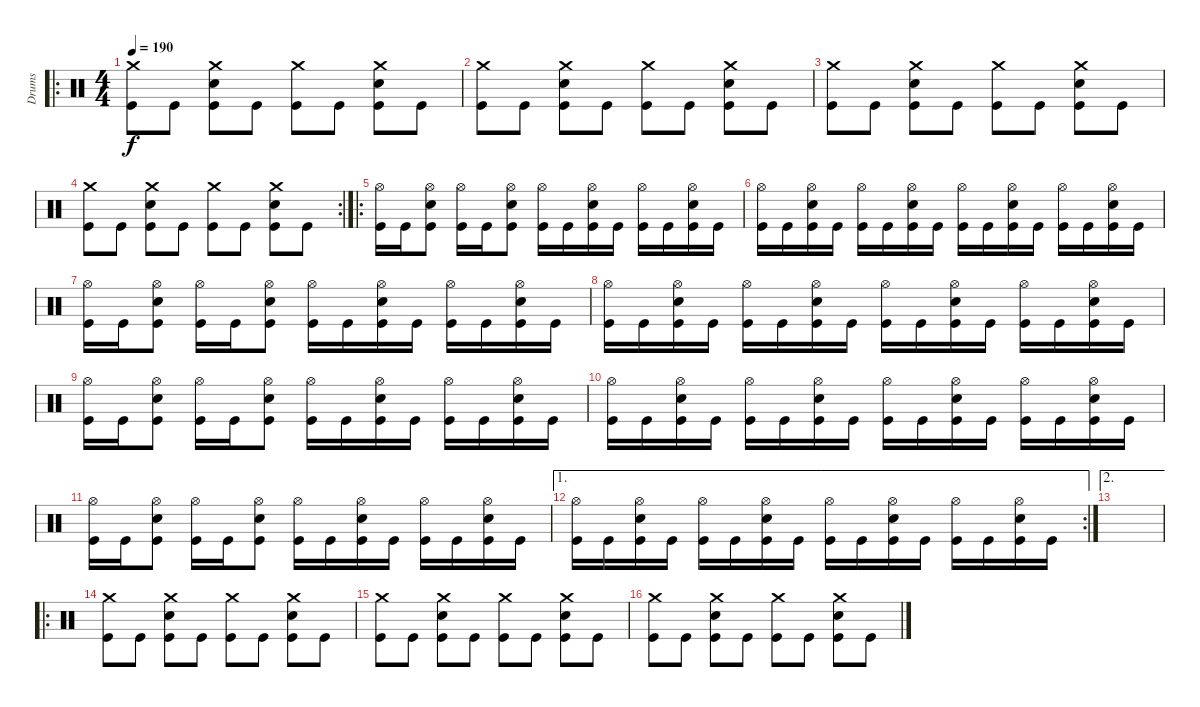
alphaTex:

\track ("Drums" "Drums") {instrument percussion}
\staff {score}
\articulation defaults
\ro
\ts (4 4)
\tempo 190
\clef neutral
\ks c
("Crash medium (hit)" "Kick (hit)").8{dy f} "Kick (hit)".8 ("Crash medium (hit)" "Snare (hit) 2" "Kick (hit)").8 "Kick (hit)".8 ("Crash medium (hit)" "Kick (hit)").8 "Kick (hit)".8 ("Crash medium (hit)" "Snare (hit) 2" "Kick (hit)").8 "Kick (hit)".8 |
("Crash medium (hit)" "Kick (hit)").8 "Kick (hit)".8 ("Crash medium (hit)" "Snare (hit) 2" "Kick (hit)").8 "Kick (hit)".8 ("Crash medium (hit)" "Kick (hit)").8 "Kick (hit)".8 ("Crash medium (hit)" "Snare (hit) 2" "Kick (hit)").8 "Kick (hit)".8 |
("Crash medium (hit)" "Kick (hit)").8 "Kick (hit)".8 ("Crash medium (hit)" "Snare (hit) 2" "Kick (hit)").8 "Kick (hit)".8 ("Crash medium (hit)" "Kick (hit)").8 "Kick (hit)".8 ("Crash medium (hit)" "Snare (hit) 2" "Kick (hit)").8 "Kick (hit)".8 |
\rc 2
("Crash medium (hit)" "Kick (hit)").8 "Kick (hit)".8 ("Crash medium (hit)" "Snare (hit) 2" "Kick (hit)").8 "Kick (hit)".8 ("Crash medium (hit)" "Kick (hit)").8 "Kick (hit)".8 ("Crash medium (hit)" "Snare (hit) 2" "Kick (hit)").8 "Kick (hit)".8 |
\ro
("Hi-Hat (open)" "Kick (hit)").16 "Kick (hit)".16 ("Hi-Hat (open)" "Snare (hit) 2" "Kick (hit)").8 ("Hi-Hat (open)" "Kick (hit)").16 "Kick (hit)".16 ("Hi-Hat (open)" "Snare (hit) 2" "Kick (hit)").8 ("Hi-Hat (open)" "Kick (hit)").16 "Kick (hit)".16 ("Hi-Hat (open)" "Snare (hit) 2" "Kick (hit)").16 "Kick (hit)".16 ("Hi-Hat (open)" "Kick (hit)").16 "Kick (hit)".16 ("Hi-Hat (open)" "Snare (hit) 2" "Kick (hit)").16 "Kick (hit)".16 |
("Hi-Hat (open)" "Kick (hit)").16 "Kick (hit)".16 ("Hi-Hat (open)" "Snare (hit) 2" "Kick (hit)").16 "Kick (hit)".16 ("Hi-Hat (open)" "Kick (hit)").16 "Kick (hit)".16 ("Hi-Hat (open)" "Snare (hit) 2" "Kick (hit)").16 "Kick (hit)".16 ("Hi-Hat (open)" "Kick (hit)").16 "Kick (hit)".16 ("Hi-Hat (open)" "Snare (hit) 2" "Kick (hit)").16 "Kick (hit)".16 ("Hi-Hat (open)" "Kick (hit)").16 "Kick (hit)".16 ("Hi-Hat (open)" "Snare (hit) 2" "Kick (hit)").16 "Kick (hit)".16 |
("Hi-Hat (open)" "Kick (hit)").16 "Kick (hit)".16 ("Hi-Hat (open)" "Snare (hit) 2" "Kick (hit)").8 ("Hi-Hat (open)" "Kick (hit)").16 "Kick (hit)".16 ("Hi-Hat (open)" "Snare (hit) 2" "Kick (hit)").8 ("Hi-Hat (open)" "Kick (hit)").16 "Kick (hit)".16 ("Hi-Hat (open)" "Snare (hit) 2" "Kick (hit)").16 "Kick (hit)".16 ("Hi-Hat (open)" "Kick (hit)").16 "Kick (hit)".16 ("Hi-Hat (open)" "Snare (hit) 2" "Kick (hit)").16 "Kick (hit)".16 |
("Hi-Hat (open)" "Kick (hit)").16 "Kick (hit)".16 ("Hi-Hat (open)" "Snare (hit) 2" "Kick (hit)").16 "Kick (hit)".16 ("Hi-Hat (open)" "Kick (hit)").16 "Kick (hit)".16 ("Hi-Hat (open)" "Snare (hit) 2" "Kick (hit)").16 "Kick (hit)".16 ("Hi-Hat (open)" "Kick (hit)").16 "Kick (hit)".16 ("Hi-Hat (open)" "Snare (hit) 2" "Kick (hit)").16 "Kick (hit)".16 ("Hi-Hat (open)" "Kick (hit)").16 "Kick (hit)".16 ("Hi-Hat (open)" "Snare (hit) 2" "Kick (hit)").16 "Kick (hit)".16 |
("Hi-Hat (open)" "Kick (hit)").16 "Kick (hit)".16 ("Hi-Hat (open)" "Snare (hit) 2" "Kick (hit)").8 ("Hi-Hat (open)" "Kick (hit)").16 "Kick (hit)".16 ("Hi-Hat (open)" "Snare (hit) 2" "Kick (hit)").8 ("Hi-Hat (open)" "Kick (hit)").16 "Kick (hit)".16 ("Hi-Hat (open)" "Snare (hit) 2" "Kick (hit)").16 "Kick (hit)".16 ("Hi-Hat (open)" "Kick (hit)").16 "Kick (hit)".16 ("Hi-Hat (open)" "Snare (hit) 2" "Kick (hit)").16 "Kick (hit)".16 |
("Hi-Hat (open)" "Kick (hit)").16 "Kick (hit)".16 ("Hi-Hat (open)" "Snare (hit) 2" "Kick (hit)").16 "Kick (hit)".16 ("Hi-Hat (open)" "Kick (hit)").16 "Kick (hit)".16 ("Hi-Hat (open)" "Snare (hit) 2" "Kick (hit)").16 "Kick (hit)".16 ("Hi-Hat (open)" "Kick (hit)").16 "Kick (hit)".16 ("Hi-Hat (open)" "Snare (hit) 2" "Kick (hit)").16 "Kick (hit)".16 ("Hi-Hat (open)" "Kick (hit)").16 "Kick (hit)".16 ("Hi-Hat (open)" "Snare (hit) 2" "Kick (hit)").16 "Kick (hit)".16 |
("Hi-Hat (open)" "Kick (hit)").16 "Kick (hit)".16 ("Hi-Hat (open)" "Snare (hit) 2" "Kick (hit)").8 ("Hi-Hat (open)" "Kick (hit)").16 "Kick (hit)".16 ("Hi-Hat (open)" "Snare (hit) 2" "Kick (hit)").8 ("Hi-Hat (open)" "Kick (hit)").16 "Kick (hit)".16 ("Hi-Hat (open)" "Snare (hit) 2" "Kick (hit)").16 "Kick (hit)".16 ("Hi-Hat (open)" "Kick (hit)").16 "Kick (hit)".16 ("Hi-Hat (open)" "Snare (hit) 2" "Kick (hit)").16 "Kick (hit)".16 |
\ae 1
\rc 2
("Hi-Hat (open)" "Kick (hit)").16 "Kick (hit)".16 ("Hi-Hat (open)" "Snare (hit) 2" "Kick (hit)").16 "Kick (hit)".16 ("Hi-Hat (open)" "Kick (hit)").16 "Kick (hit)".16 ("Hi-Hat (open)" "Snare (hit) 2" "Kick (hit)").16 "Kick (hit)".16 ("Hi-Hat (open)" "Kick (hit)").16 "Kick (hit)".16 ("Hi-Hat (open)" "Snare (hit) 2" "Kick (hit)").16 "Kick (hit)".16 ("Hi-Hat (open)" "Kick (hit)").16 "Kick (hit)".16 ("Hi-Hat (open)" "Snare (hit) 2" "Kick (hit)").16 "Kick (hit)".16 |
\ae 2
|
\ro
("Crash medium (hit)" "Kick (hit)").8 "Kick (hit)".8 ("Crash medium (hit)" "Snare (hit) 2" "Kick (hit)").8 "Kick (hit)".8 ("Crash medium (hit)" "Kick (hit)").8 "Kick (hit)".8 ("Crash medium (hit)" "Snare (hit) 2" "Kick (hit)").8 "Kick (hit)".8 |
("Crash medium (hit)" "Kick (hit)").8 "Kick (hit)".8 ("Crash medium (hit)" "Snare (hit) 2" "Kick (hit)").8 "Kick (hit)".8 ("Crash medium (hit)" "Kick (hit)").8 "Kick (hit)".8 ("Crash medium (hit)" "Snare (hit) 2" "Kick (hit)").8 "Kick (hit)".8 |
("Crash medium (hit)" "Kick (hit)").8 "Kick (hit)".8 ("Crash medium (hit)" "Snare (hit) 2" "Kick (hit)").8 "Kick (hit)".8 ("Crash medium (hit)" "Kick (hit)").8 "Kick (hit)".8 ("Crash medium (hit)" "Snare (hit) 2" "Kick (hit)").8 "Kick (hit)".8
